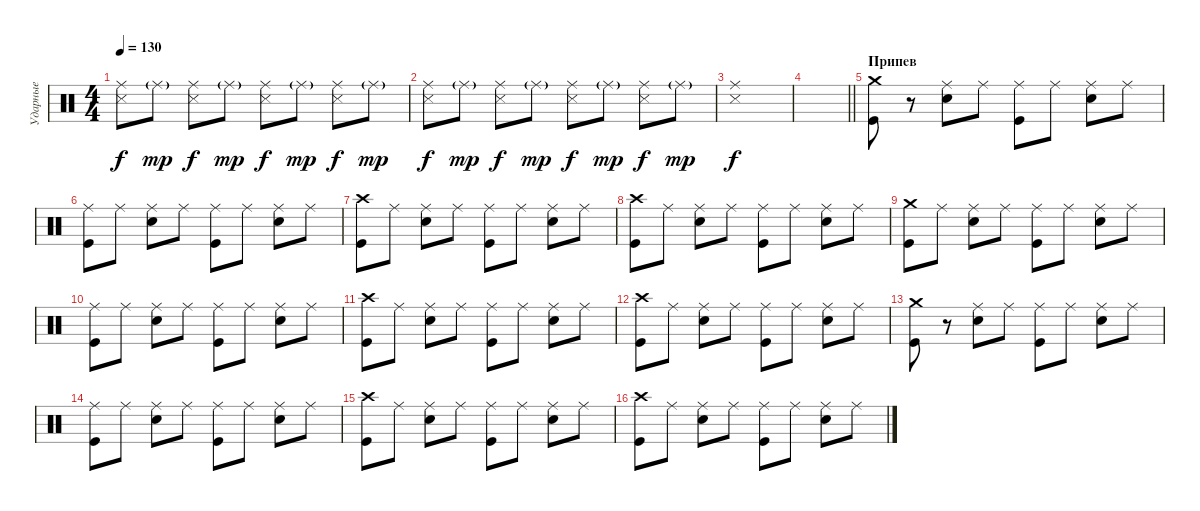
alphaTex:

\track ("Ударные" "Ударные") {instrument percussion}
\staff {score}
\articulation defaults
\ts (4 4)
\tempo 130
\clef neutral
\ks c
("Metronome (hit)" "Ride (middle)").8{dy f volume 10} "Ride (middle)"{g}.8{dy mp} ("Metronome (hit)" "Ride (middle)").8{dy f} "Ride (middle)"{g}.8{dy mp} ("Metronome (hit)" "Ride (middle)").8{dy f} "Ride (middle)"{g}.8{dy mp} ("Metronome (hit)" "Ride (middle)").8{dy f} "Ride (middle)"{g}.8{dy mp} |
("Metronome (hit)" "Ride (middle)").8{dy f} "Ride (middle)"{g}.8{dy mp} ("Metronome (hit)" "Ride (middle)").8{dy f} "Ride (middle)"{g}.8{dy mp} ("Metronome (hit)" "Ride (middle)").8{dy f} "Ride (middle)"{g}.8{dy mp} ("Metronome (hit)" "Ride (middle)").8{dy f} "Ride (middle)"{g}.8{dy mp} |
("Metronome (hit)" "Ride (middle)").1{dy f} |
\barLineRight lightlight
|
\section ("" "Припев")
("Kick (hit)" "Crash medium (hit)").8{volume 16} r.8 ("Snare (hit) 2" "Ride (middle)").8 "Ride (middle)".8 ("Kick (hit)" "Ride (middle)").8 "Ride (middle)".8 ("Snare (hit) 2" "Ride (middle)").8 "Ride (middle)".8 |
("Kick (hit)" "Ride (middle)").8 "Ride (middle)".8 ("Snare (hit) 2" "Ride (middle)").8 "Ride (middle)".8 ("Kick (hit)" "Ride (middle)").8 "Ride (middle)".8 ("Snare (hit) 2" "Ride (middle)").8 "Ride (middle)".8 |
("Kick (hit)" "Crash high (hit)").8 "Ride (middle)".8 ("Snare (hit) 2" "Ride (middle)").8 "Ride (middle)".8 ("Kick (hit)" "Ride (middle)").8 "Ride (middle)".8 ("Snare (hit) 2" "Ride (middle)").8 "Ride (middle)".8 |
("Kick (hit)" "Crash high (hit)").8 "Ride (middle)".8 ("Snare (hit) 2" "Ride (middle)").8 "Ride (middle)".8 ("Kick (hit)" "Ride (middle)").8 "Ride (middle)".8 ("Snare (hit) 2" "Ride (middle)").8 "Ride (middle)".8 |
("Kick (hit)" "Crash medium (hit)").8 "Ride (middle)".8 ("Snare (hit) 2" "Ride (middle)").8 "Ride (middle)".8 ("Kick (hit)" "Ride (middle)").8 "Ride (middle)".8 ("Snare (hit) 2" "Ride (middle)").8 "Ride (middle)".8 |
("Kick (hit)" "Ride (middle)").8 "Ride (middle)".8 ("Snare (hit) 2" "Ride (middle)").8 "Ride (middle)".8 ("Kick (hit)" "Ride (middle)").8 "Ride (middle)".8 ("Snare (hit) 2" "Ride (middle)").8 "Ride (middle)".8 |
("Kick (hit)" "Crash high (hit)").8 "Ride (middle)".8 ("Snare (hit) 2" "Ride (middle)").8 "Ride (middle)".8 ("Kick (hit)" "Ride (middle)").8 "Ride (middle)".8 ("Snare (hit) 2" "Ride (middle)").8 "Ride (middle)".8 |
("Kick (hit)" "Crash high (hit)").8 "Ride (middle)".8 ("Snare (hit) 2" "Ride (middle)").8 "Ride (middle)".8 ("Kick (hit)" "Ride (middle)").8 "Ride (middle)".8 ("Snare (hit) 2" "Ride (middle)").8 "Ride (middle)".8 |
("Kick (hit)" "Crash medium (hit)").8 r.8 ("Snare (hit) 2" "Ride (middle)").8 "Ride (middle)".8 ("Kick (hit)" "Ride (middle)").8 "Ride (middle)".8 ("Snare (hit) 2" "Ride (middle)").8 "Ride (middle)".8 |
("Kick (hit)" "Ride (middle)").8 "Ride (middle)".8 ("Snare (hit) 2" "Ride (middle)").8 "Ride (middle)".8 ("Kick (hit)" "Ride (middle)").8 "Ride (middle)".8 ("Snare (hit) 2" "Ride (middle)").8 "Ride (middle)".8 |
("Kick (hit)" "Crash high (hit)").8 "Ride (middle)".8 ("Snare (hit) 2" "Ride (middle)").8 "Ride (middle)".8 ("Kick (hit)" "Ride (middle)").8 "Ride (middle)".8 ("Snare (hit) 2" "Ride (middle)").8 "Ride (middle)".8 |
("Kick (hit)" "Crash high (hit)").8 "Ride (middle)".8 ("Snare (hit) 2" "Ride (middle)").8 "Ride (middle)".8 ("Kick (hit)" "Ride (middle)").8 "Ride (middle)".8 ("Snare (hit) 2" "Ride (middle)").8 "Ride (middle)".8
